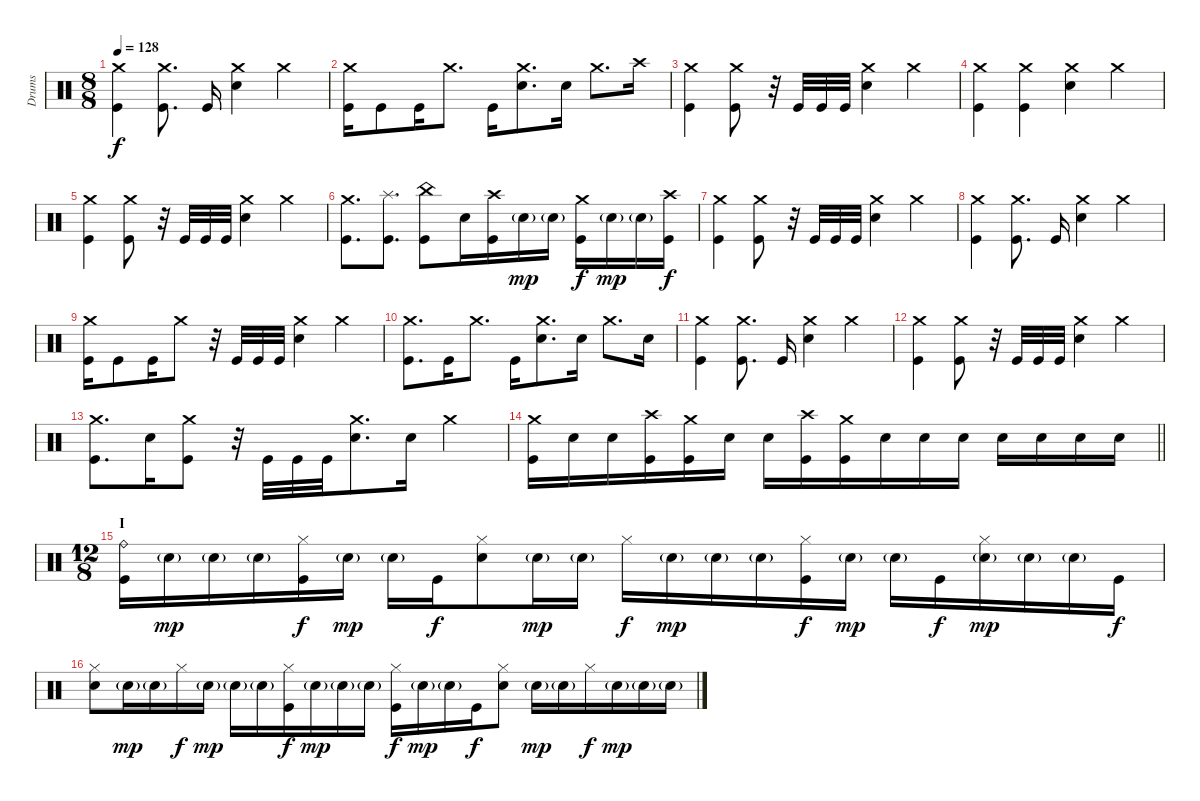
\track ("Drums" "Drums") {instrument percussion}
\staff {score}
\articulation defaults
\ts (8 8)
\tempo 128
\clef neutral
\ks c
("Kick (hit)" "Crash medium (hit)").4{dy f} ("Kick (hit)" "Crash medium (hit)").8{d} "Kick (hit)".16 ("Electric Snare (hit)" "Crash medium (hit)").4 "Crash medium (hit)".4 |
("Kick (hit)" "Crash medium (hit)").16 "Kick (hit)".8 "Kick (hit)".16 "Crash medium (hit)".8{d} "Kick (hit)".16 ("Electric Snare (hit)" "Crash medium (hit)").8{d} "Electric Snare (hit)".16 "Crash medium (hit)".8{d} "Crash high (hit)".16 |
("Kick (hit)" "Crash medium (hit)").4 ("Kick (hit)" "Crash medium (hit)").8 r.32 "Kick (hit)".32 "Kick (hit)".32 "Kick (hit)".32 ("Electric Snare (hit)" "Crash medium (hit)").4 "Crash medium (hit)".4 |
("Kick (hit)" "Crash medium (hit)").4 ("Kick (hit)" "Crash medium (hit)").4 ("Electric Snare (hit)" "Crash medium (hit)").4 "Crash medium (hit)".4 |
("Kick (hit)" "Crash medium (hit)").4 ("Kick (hit)" "Crash medium (hit)").8 r.32 "Kick (hit)".32 "Kick (hit)".32 "Kick (hit)".32 ("Electric Snare (hit)" "Crash medium (hit)").4 "Crash medium (hit)".4 |
("Kick (hit)" "Crash medium (hit)").8{d} ("Kick (hit)" "Splash (hit)").8{d} ("Kick (hit)" "China (hit)").8 "Electric Snare (hit)".16 ("Kick (hit)" "Crash high (hit)").16 "Electric Snare (hit)"{g}.16{dy mp} "Electric Snare (hit)"{g}.16 ("Kick (hit)" "Crash medium (hit)").16{dy f} "Electric Snare (hit)"{g}.16{dy mp} "Electric Snare (hit)"{g}.16 ("Kick (hit)" "Crash high (hit)").16{dy f} |
("Kick (hit)" "Crash medium (hit)").4 ("Kick (hit)" "Crash medium (hit)").8 r.32 "Kick (hit)".32 "Kick (hit)".32 "Kick (hit)".32 ("Electric Snare (hit)" "Crash medium (hit)").4 "Crash medium (hit)".4 |
("Kick (hit)" "Crash medium (hit)").4 ("Kick (hit)" "Crash medium (hit)").8{d} "Kick (hit)".16 ("Electric Snare (hit)" "Crash medium (hit)").4 "Crash medium (hit)".4 |
("Kick (hit)" "Crash medium (hit)").16 "Kick (hit)".8 "Kick (hit)".16 "Crash medium (hit)".8 r.32 "Kick (hit)".32 "Kick (hit)".32 "Kick (hit)".32 ("Electric Snare (hit)" "Crash medium (hit)").4 "Crash medium (hit)".4 |
("Kick (hit)" "Crash medium (hit)").8{d} "Kick (hit)".16 "Crash medium (hit)".8{d} "Kick (hit)".16 ("Electric Snare (hit)" "Crash medium (hit)").8{d} "Electric Snare (hit)".16 "Crash medium (hit)".8{d} "Electric Snare (hit)".16 |
("Kick (hit)" "Crash medium (hit)").4 ("Kick (hit)" "Crash medium (hit)").8{d} "Kick (hit)".16 ("Electric Snare (hit)" "Crash medium (hit)").4 "Crash medium (hit)".4 |
("Kick (hit)" "Crash medium (hit)").4 ("Kick (hit)" "Crash medium (hit)").8 r.32 "Kick (hit)".32 "Kick (hit)".32 "Kick (hit)".32 ("Electric Snare (hit)" "Crash medium (hit)").4 "Crash medium (hit)".4 |
("Kick (hit)" "Crash medium (hit)").8{d} "Electric Snare (hit)".16 ("Kick (hit)" "Crash medium (hit)").8 r.32 "Kick (hit)".32 "Kick (hit)".32 "Kick (hit)".32 ("Electric Snare (hit)" "Crash medium (hit)").8{d} "Electric Snare (hit)".16 "Crash medium (hit)".4 |
\barLineRight lightlight
("Kick (hit)" "Crash medium (hit)").16 "Electric Snare (hit)".16 "Electric Snare (hit)".16 ("Kick (hit)" "Crash high (hit)").16 ("Kick (hit)" "Crash medium (hit)").16 "Electric Snare (hit)".16 "Electric Snare (hit)".16 ("Kick (hit)" "Crash high (hit)").16 ("Kick (hit)" "Crash medium (hit)").16 "Electric Snare (hit)".16 "Electric Snare (hit)".16 "Electric Snare (hit)".16 "Electric Snare (hit)".16 "Electric Snare (hit)".16 "Electric Snare (hit)".16 "Electric Snare (hit)".16 |
\ts (12 8)
\section ("" "I")
("Kick (hit)" "Ride (bell)").16 "Electric Snare (hit)"{g}.16{dy mp} "Electric Snare (hit)"{g}.16 "Electric Snare (hit)"{g}.16 ("Kick (hit)" "Hi-Hat (closed)").16{dy f} "Electric Snare (hit)"{g}.16{dy mp} "Electric Snare (hit)"{g}.16 "Kick (hit)".16{dy f} ("Electric Snare (hit)" "Hi-Hat (closed)").8 "Electric Snare (hit)"{g}.16{dy mp} "Electric Snare (hit)"{g}.16 "Hi-Hat (closed)".16{dy f} "Electric Snare (hit)"{g}.16{dy mp} "Electric Snare (hit)"{g}.16 "Electric Snare (hit)"{g}.16 ("Kick (hit)" "Hi-Hat (closed)").16{dy f} "Electric Snare (hit)"{g}.16{dy mp} "Electric Snare (hit)"{g}.16 "Kick (hit)".16{dy f} ("Electric Snare (hit)"{g} "Hi-Hat (closed)").16{dy mp} "Electric Snare (hit)"{g}.16 "Electric Snare (hit)"{g}.16 "Kick (hit)".16{dy f} |
("Electric Snare (hit)" "Hi-Hat (closed)").8 "Electric Snare (hit)"{g}.16{dy mp} "Electric Snare (hit)"{g}.16 "Hi-Hat (closed)".16{dy f} "Electric Snare (hit)"{g}.16{dy mp} "Electric Snare (hit)"{g}.16 "Electric Snare (hit)"{g}.16 ("Kick (hit)" "Hi-Hat (closed)").16{dy f} "Electric Snare (hit)"{g}.16{dy mp} "Electric Snare (hit)"{g}.16 "Electric Snare (hit)"{g}.16 ("Kick (hit)" "Hi-Hat (closed)").16{dy f} "Electric Snare (hit)"{g}.16{dy mp} "Electric Snare (hit)"{g}.16 "Kick (hit)".16{dy f} ("Electric Snare (hit)" "Hi-Hat (closed)").8 "Electric Snare (hit)"{g}.16{dy mp} "Electric Snare (hit)"{g}.16 "Hi-Hat (closed)".16{dy f} "Electric Snare (hit)"{g}.16{dy mp} "Electric Snare (hit)"{g}.16 "Electric Snare (hit)"{g}.16
